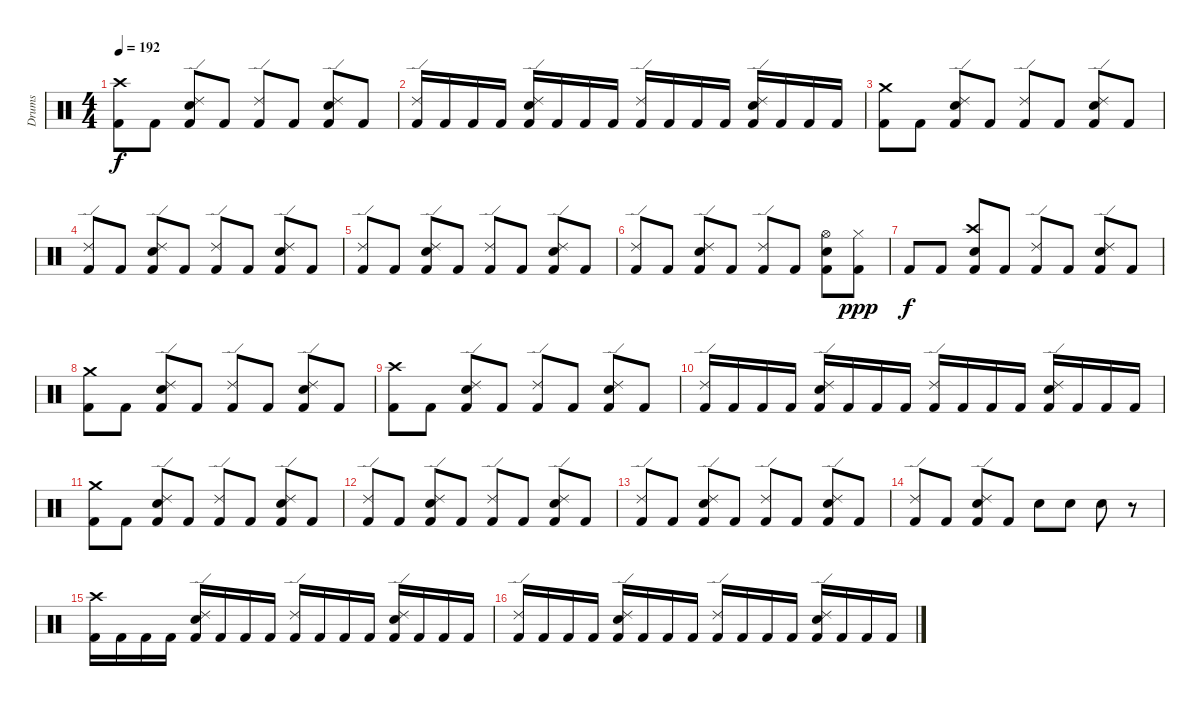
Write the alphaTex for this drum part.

\track ("Drums" "Drums") {instrument percussion}
\staff {score}
\articulation defaults
\ts (4 4)
\tempo 192
\clef neutral
\ks c
("Kick (hit) 2" "Crash high (hit)").8{dy f} "Kick (hit) 2".8 ("Kick (hit) 2" "Electric Snare (hit)" "Ride (edge) 2").8 "Kick (hit) 2".8 ("Kick (hit) 2" "Ride (edge) 2").8 "Kick (hit) 2".8 ("Kick (hit) 2" "Electric Snare (hit)" "Ride (edge) 2").8 "Kick (hit) 2".8 |
("Kick (hit) 2" "Ride (edge) 2").16 "Kick (hit) 2".16 "Kick (hit) 2".16 "Kick (hit) 2".16 ("Kick (hit) 2" "Electric Snare (hit)" "Ride (edge) 2").16 "Kick (hit) 2".16 "Kick (hit) 2".16 "Kick (hit) 2".16 ("Kick (hit) 2" "Ride (edge) 2").16 "Kick (hit) 2".16 "Kick (hit) 2".16 "Kick (hit) 2".16 ("Kick (hit) 2" "Electric Snare (hit)" "Ride (edge) 2").16 "Kick (hit) 2".16 "Kick (hit) 2".16 "Kick (hit) 2".16 |
("Kick (hit) 2" "Crash medium (hit)").8 "Kick (hit) 2".8 ("Kick (hit) 2" "Electric Snare (hit)" "Ride (edge) 2").8 "Kick (hit) 2".8 ("Kick (hit) 2" "Ride (edge) 2").8 "Kick (hit) 2".8 ("Kick (hit) 2" "Electric Snare (hit)" "Ride (edge) 2").8 "Kick (hit) 2".8 |
("Kick (hit) 2" "Ride (edge) 2").8 "Kick (hit) 2".8 ("Kick (hit) 2" "Electric Snare (hit)" "Ride (edge) 2").8 "Kick (hit) 2".8 ("Kick (hit) 2" "Ride (edge) 2").8 "Kick (hit) 2".8 ("Kick (hit) 2" "Electric Snare (hit)" "Ride (edge) 2").8 "Kick (hit) 2".8 |
("Kick (hit) 2" "Ride (edge) 2").8 "Kick (hit) 2".8 ("Kick (hit) 2" "Electric Snare (hit)" "Ride (edge) 2").8 "Kick (hit) 2".8 ("Kick (hit) 2" "Ride (edge) 2").8 "Kick (hit) 2".8 ("Kick (hit) 2" "Electric Snare (hit)" "Ride (edge) 2").8 "Kick (hit) 2".8 |
("Kick (hit) 2" "Ride (edge) 2").8 "Kick (hit) 2".8 ("Kick (hit) 2" "Electric Snare (hit)" "Ride (edge) 2").8 "Kick (hit) 2".8 ("Kick (hit) 2" "Ride (edge) 2").8 "Kick (hit) 2".8 ("Kick (hit) 2" "Electric Snare (hit)" "Hi-Hat (open)").8 ("Kick (hit) 2" "Hi-Hat (closed)").8{dy ppp} |
\section ("" "")
"Kick (hit) 2".8{dy f} "Kick (hit) 2".8 ("Kick (hit) 2" "Electric Snare (hit)" "Crash high (hit)").8 "Kick (hit) 2".8 ("Kick (hit) 2" "Ride (edge) 2").8 "Kick (hit) 2".8 ("Kick (hit) 2" "Electric Snare (hit)" "Ride (edge) 2").8 "Kick (hit) 2".8 |
("Kick (hit) 2" "Crash medium (hit)").8 "Kick (hit) 2".8 ("Kick (hit) 2" "Electric Snare (hit)" "Ride (edge) 2").8 "Kick (hit) 2".8 ("Kick (hit) 2" "Ride (edge) 2").8 "Kick (hit) 2".8 ("Kick (hit) 2" "Electric Snare (hit)" "Ride (edge) 2").8 "Kick (hit) 2".8 |
("Kick (hit) 2" "Crash high (hit)").8 "Kick (hit) 2".8 ("Kick (hit) 2" "Electric Snare (hit)" "Ride (edge) 2").8 "Kick (hit) 2".8 ("Kick (hit) 2" "Ride (edge) 2").8 "Kick (hit) 2".8 ("Kick (hit) 2" "Electric Snare (hit)" "Ride (edge) 2").8 "Kick (hit) 2".8 |
("Kick (hit) 2" "Ride (edge) 2").16 "Kick (hit) 2".16 "Kick (hit) 2".16 "Kick (hit) 2".16 ("Kick (hit) 2" "Electric Snare (hit)" "Ride (edge) 2").16 "Kick (hit) 2".16 "Kick (hit) 2".16 "Kick (hit) 2".16 ("Kick (hit) 2" "Ride (edge) 2").16 "Kick (hit) 2".16 "Kick (hit) 2".16 "Kick (hit) 2".16 ("Kick (hit) 2" "Electric Snare (hit)" "Ride (edge) 2").16 "Kick (hit) 2".16 "Kick (hit) 2".16 "Kick (hit) 2".16 |
("Kick (hit) 2" "Crash medium (hit)").8 "Kick (hit) 2".8 ("Kick (hit) 2" "Electric Snare (hit)" "Ride (edge) 2").8 "Kick (hit) 2".8 ("Kick (hit) 2" "Ride (edge) 2").8 "Kick (hit) 2".8 ("Kick (hit) 2" "Electric Snare (hit)" "Ride (edge) 2").8 "Kick (hit) 2".8 |
("Kick (hit) 2" "Ride (edge) 2").8 "Kick (hit) 2".8 ("Kick (hit) 2" "Electric Snare (hit)" "Ride (edge) 2").8 "Kick (hit) 2".8 ("Kick (hit) 2" "Ride (edge) 2").8 "Kick (hit) 2".8 ("Kick (hit) 2" "Electric Snare (hit)" "Ride (edge) 2").8 "Kick (hit) 2".8 |
("Kick (hit) 2" "Ride (edge) 2").8 "Kick (hit) 2".8 ("Kick (hit) 2" "Electric Snare (hit)" "Ride (edge) 2").8 "Kick (hit) 2".8 ("Kick (hit) 2" "Ride (edge) 2").8 "Kick (hit) 2".8 ("Kick (hit) 2" "Electric Snare (hit)" "Ride (edge) 2").8 "Kick (hit) 2".8 |
("Kick (hit) 2" "Ride (edge) 2").8 "Kick (hit) 2".8 ("Kick (hit) 2" "Electric Snare (hit)" "Ride (edge) 2").8 "Kick (hit) 2".8 "Electric Snare (hit)".8 "Electric Snare (hit)".8 "Electric Snare (hit)".8 r.8 |
\section ("" "")
("Kick (hit) 2" "Crash high (hit)").16 "Kick (hit) 2".16 "Kick (hit) 2".16 "Kick (hit) 2".16 ("Kick (hit) 2" "Electric Snare (hit)" "Ride (edge) 2").16 "Kick (hit) 2".16 "Kick (hit) 2".16 "Kick (hit) 2".16 ("Kick (hit) 2" "Ride (edge) 2").16 "Kick (hit) 2".16 "Kick (hit) 2".16 "Kick (hit) 2".16 ("Kick (hit) 2" "Electric Snare (hit)" "Ride (edge) 2").16 "Kick (hit) 2".16 "Kick (hit) 2".16 "Kick (hit) 2".16 |
("Kick (hit) 2" "Ride (edge) 2").16 "Kick (hit) 2".16 "Kick (hit) 2".16 "Kick (hit) 2".16 ("Kick (hit) 2" "Electric Snare (hit)" "Ride (edge) 2").16 "Kick (hit) 2".16 "Kick (hit) 2".16 "Kick (hit) 2".16 ("Kick (hit) 2" "Ride (edge) 2").16 "Kick (hit) 2".16 "Kick (hit) 2".16 "Kick (hit) 2".16 ("Kick (hit) 2" "Electric Snare (hit)" "Ride (edge) 2").16 "Kick (hit) 2".16 "Kick (hit) 2".16 "Kick (hit) 2".16
